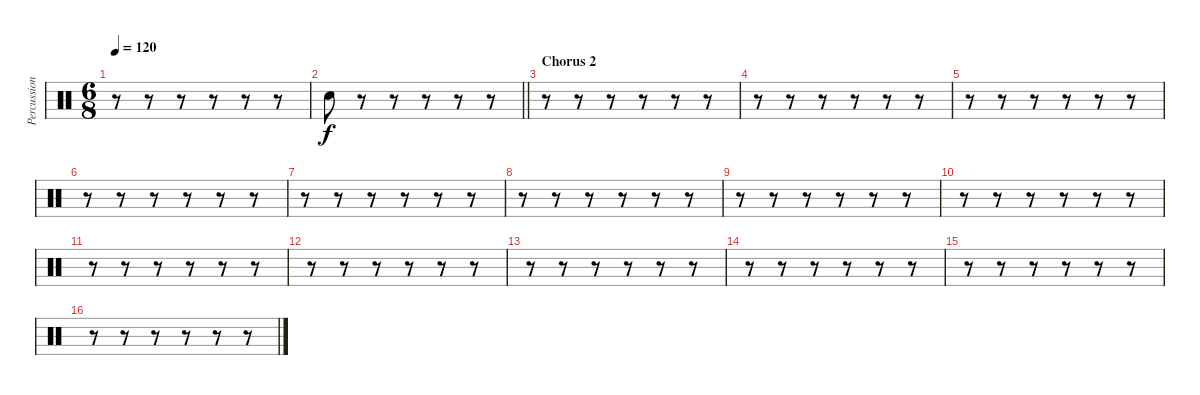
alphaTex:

\track ("Percussion" "Percussion") {instrument percussion}
\staff {score}
\articulation defaults
\ts (6 8)
\tempo 120
\clef neutral
\ks c
r.8{dy f} r.8 r.8 r.8 r.8 r.8 |
\barLineRight lightlight "Snare (hit) 2".8
r.8 r.8 r.8 r.8 r.8 |
\section ("" "Chorus 2")
r.8 r.8 r.8 r.8 r.8 r.8 |
r.8 r.8 r.8 r.8 r.8 r.8 |
r.8 r.8 r.8 r.8 r.8 r.8 |
r.8 r.8 r.8 r.8 r.8 r.8 |
r.8 r.8 r.8 r.8 r.8 r.8 |
r.8 r.8 r.8 r.8 r.8 r.8 |
r.8 r.8 r.8 r.8 r.8 r.8 |
r.8 r.8 r.8 r.8 r.8 r.8 |
r.8 r.8 r.8 r.8 r.8 r.8 |
r.8 r.8 r.8 r.8 r.8 r.8 |
r.8 r.8 r.8 r.8 r.8 r.8 |
r.8 r.8 r.8 r.8 r.8 r.8 |
r.8 r.8 r.8 r.8 r.8 r.8 |
r.8 r.8 r.8 r.8 r.8 r.8
